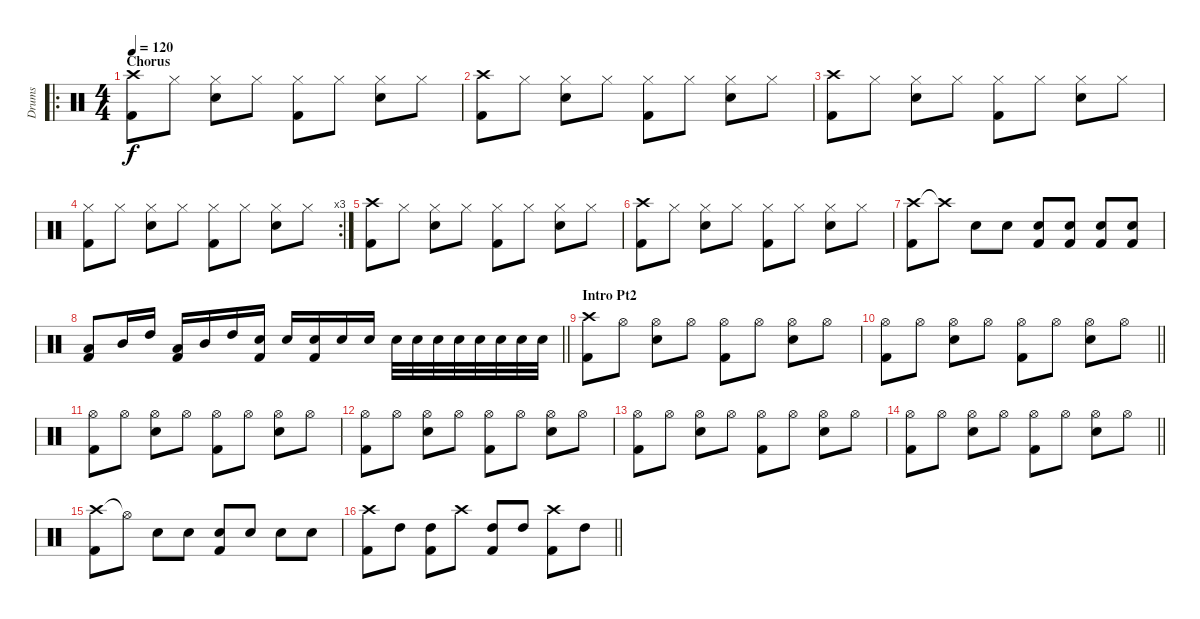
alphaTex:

\track ("Drums" "Drums") {instrument percussion}
\staff {score}
\articulation defaults
\ro
\ts (4 4)
\section ("" "Chorus")
\tempo 120
\clef neutral
\ks c
("Crash high (hit)" "Kick (hit) 2").8{dy f} "Hi-Hat (closed)".8 ("Hi-Hat (closed)" "Snare (hit) 2").8 "Hi-Hat (closed)".8 ("Hi-Hat (closed)" "Kick (hit) 2").8 "Hi-Hat (closed)".8 ("Hi-Hat (closed)" "Snare (hit) 2").8 "Hi-Hat (closed)".8 |
("Crash high (hit)" "Kick (hit) 2").8 "Hi-Hat (closed)".8 ("Hi-Hat (closed)" "Snare (hit) 2").8 "Hi-Hat (closed)".8 ("Hi-Hat (closed)" "Kick (hit) 2").8 "Hi-Hat (closed)".8 ("Hi-Hat (closed)" "Snare (hit) 2").8 "Hi-Hat (closed)".8 |
("Crash high (hit)" "Kick (hit) 2").8 "Hi-Hat (closed)".8 ("Hi-Hat (closed)" "Snare (hit) 2").8 "Hi-Hat (closed)".8 ("Hi-Hat (closed)" "Kick (hit) 2").8 "Hi-Hat (closed)".8 ("Hi-Hat (closed)" "Snare (hit) 2").8 "Hi-Hat (closed)".8 |
\rc 3
("Hi-Hat (closed)" "Kick (hit) 2").8 "Hi-Hat (closed)".8 ("Hi-Hat (closed)" "Snare (hit) 2").8 "Hi-Hat (closed)".8 ("Hi-Hat (closed)" "Kick (hit) 2").8 "Hi-Hat (closed)".8 ("Hi-Hat (closed)" "Snare (hit) 2").8 "Hi-Hat (closed)".8 |
("Crash high (hit)" "Kick (hit) 2").8 "Hi-Hat (closed)".8 ("Hi-Hat (closed)" "Snare (hit) 2").8 "Hi-Hat (closed)".8 ("Hi-Hat (closed)" "Kick (hit) 2").8 "Hi-Hat (closed)".8 ("Hi-Hat (closed)" "Snare (hit) 2").8 "Hi-Hat (closed)".8 |
("Crash high (hit)" "Kick (hit) 2").8 "Hi-Hat (closed)".8 ("Hi-Hat (closed)" "Snare (hit) 2").8 "Hi-Hat (closed)".8 ("Hi-Hat (closed)" "Kick (hit) 2").8 "Hi-Hat (closed)".8 ("Hi-Hat (closed)" "Snare (hit) 2").8 "Hi-Hat (closed)".8 |
("Crash high (hit)" "Kick (hit) 2").8 "Crash high (hit)"{t}.8 "Snare (hit) 2".8 "Snare (hit) 2".8 ("Snare (hit) 2" "Kick (hit) 2").8 ("Snare (hit) 2" "Kick (hit) 2").8 ("Snare (hit) 2" "Kick (hit) 2").8 ("Snare (hit) 2" "Kick (hit) 2").8 |
\barLineRight lightlight
("Low Tom (hit)" "Kick (hit) 2").8 "Mid Tom (hit)".16 "High Tom (hit)".16 ("Low Tom (hit)" "Kick (hit) 2").16 "Mid Tom (hit)".16 "High Tom (hit)".16 ("Snare (hit) 2" "Kick (hit) 2").16 "Snare (hit) 2".16 ("Snare (hit) 2" "Kick (hit) 2").16 "Snare (hit) 2".16 "Snare (hit) 2".16 "Snare (hit) 2".32 "Snare (hit) 2".32 "Snare (hit) 2".32 "Snare (hit) 2".32 "Snare (hit) 2".32 "Snare (hit) 2".32 "Snare (hit) 2".32 "Snare (hit) 2".32 |
\section ("" "Intro Pt2")
("Crash high (hit)" "Kick (hit) 2").8 "Hi-Hat (open)".8 ("Hi-Hat (open)" "Electric Snare (hit)").8 "Hi-Hat (open)".8 ("Hi-Hat (open)" "Kick (hit) 2").8 "Hi-Hat (open)".8 ("Hi-Hat (open)" "Electric Snare (hit)").8 "Hi-Hat (open)".8 |
\barLineRight lightlight
("Hi-Hat (open)" "Kick (hit) 2").8 "Hi-Hat (open)".8 ("Hi-Hat (open)" "Electric Snare (hit)").8 "Hi-Hat (open)".8 ("Hi-Hat (open)" "Kick (hit) 2").8 "Hi-Hat (open)".8 ("Hi-Hat (open)" "Electric Snare (hit)").8 "Hi-Hat (open)".8 |
("Hi-Hat (open)" "Kick (hit) 2").8 "Hi-Hat (open)".8 ("Hi-Hat (open)" "Electric Snare (hit)").8 "Hi-Hat (open)".8 ("Hi-Hat (open)" "Kick (hit) 2").8 "Hi-Hat (open)".8 ("Hi-Hat (open)" "Electric Snare (hit)").8 "Hi-Hat (open)".8 |
("Hi-Hat (open)" "Kick (hit) 2").8 "Hi-Hat (open)".8 ("Hi-Hat (open)" "Electric Snare (hit)").8 "Hi-Hat (open)".8 ("Hi-Hat (open)" "Kick (hit) 2").8 "Hi-Hat (open)".8 ("Hi-Hat (open)" "Electric Snare (hit)").8 "Hi-Hat (open)".8 |
("Hi-Hat (open)" "Kick (hit) 2").8 "Hi-Hat (open)".8 ("Hi-Hat (open)" "Electric Snare (hit)").8 "Hi-Hat (open)".8 ("Hi-Hat (open)" "Kick (hit) 2").8 "Hi-Hat (open)".8 ("Hi-Hat (open)" "Electric Snare (hit)").8 "Hi-Hat (open)".8 |
\barLineRight lightlight
("Hi-Hat (open)" "Kick (hit) 2").8 "Hi-Hat (open)".8 ("Hi-Hat (open)" "Electric Snare (hit)").8 "Hi-Hat (open)".8 ("Hi-Hat (open)" "Kick (hit) 2").8 "Hi-Hat (open)".8 ("Hi-Hat (open)" "Electric Snare (hit)").8 "Hi-Hat (open)".8 |
("Crash high (hit)" "Kick (hit) 2").8 "Hi-Hat (open)"{t}.8 "Electric Snare (hit)".8 "Electric Snare (hit)".8 ("Electric Snare (hit)" "Kick (hit) 2").8 "Electric Snare (hit)".8 "Electric Snare (hit)".8 "Electric Snare (hit)".8 |
\barLineRight lightlight
("Crash high (hit)" "Kick (hit) 2").8 "High Tom (hit)".8 ("High Tom (hit)" "Kick (hit) 2").8 "Crash high (hit)".8 ("High Tom (hit)" "Kick (hit) 2").8 "High Tom (hit)".8 ("Crash high (hit)" "Kick (hit) 2").8 "High Tom (hit)".8
